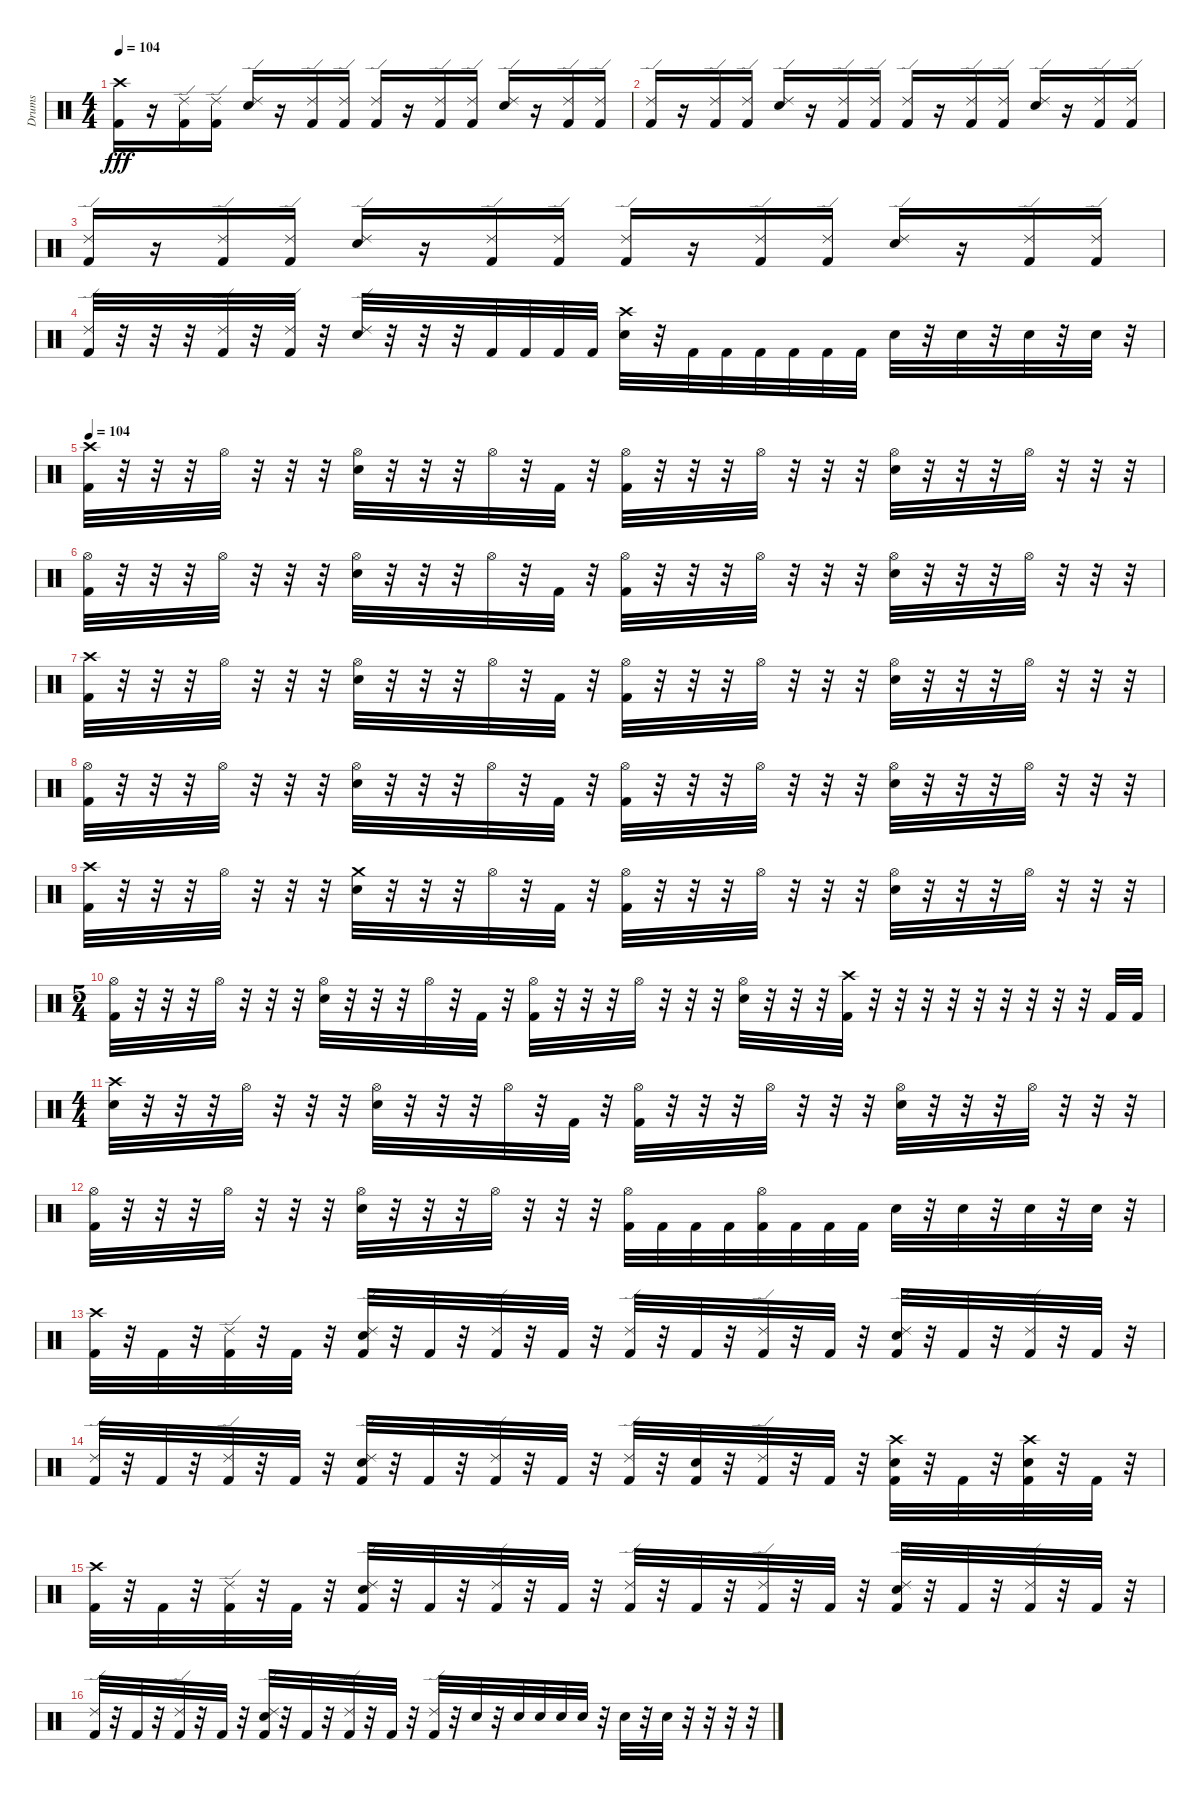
\track ("Drums" "Drums") {instrument percussion}
\staff {score}
\articulation defaults
\ts (4 4)
\tempo 104
\clef neutral
\ks c
("Crash high (hit)" "Kick (hit) 2").16{dy fff} r.16 ("Ride (edge) 2" "Kick (hit) 2").16 ("Ride (edge) 2" "Kick (hit) 2").16 ("Ride (edge) 2" "Snare (hit) 2").16 r.16 ("Ride (edge) 2" "Kick (hit) 2").16 ("Ride (edge) 2" "Kick (hit) 2").16 ("Ride (edge) 2" "Kick (hit) 2").16 r.16 ("Ride (edge) 2" "Kick (hit) 2").16 ("Ride (edge) 2" "Kick (hit) 2").16 ("Ride (edge) 2" "Snare (hit) 2").16 r.16 ("Ride (edge) 2" "Kick (hit) 2").16 ("Ride (edge) 2" "Kick (hit) 2").16 |
("Ride (edge) 2" "Kick (hit) 2").16 r.16 ("Ride (edge) 2" "Kick (hit) 2").16 ("Ride (edge) 2" "Kick (hit) 2").16 ("Ride (edge) 2" "Snare (hit) 2").16 r.16 ("Ride (edge) 2" "Kick (hit) 2").16 ("Ride (edge) 2" "Kick (hit) 2").16 ("Ride (edge) 2" "Kick (hit) 2").16 r.16 ("Ride (edge) 2" "Kick (hit) 2").16 ("Ride (edge) 2" "Kick (hit) 2").16 ("Ride (edge) 2" "Snare (hit) 2").16 r.16 ("Ride (edge) 2" "Kick (hit) 2").16 ("Ride (edge) 2" "Kick (hit) 2").16 |
("Ride (edge) 2" "Kick (hit) 2").16 r.16 ("Ride (edge) 2" "Kick (hit) 2").16 ("Ride (edge) 2" "Kick (hit) 2").16 ("Ride (edge) 2" "Snare (hit) 2").16 r.16 ("Ride (edge) 2" "Kick (hit) 2").16 ("Ride (edge) 2" "Kick (hit) 2").16 ("Ride (edge) 2" "Kick (hit) 2").16 r.16 ("Ride (edge) 2" "Kick (hit) 2").16 ("Ride (edge) 2" "Kick (hit) 2").16 ("Ride (edge) 2" "Snare (hit) 2").16 r.16 ("Ride (edge) 2" "Kick (hit) 2").16 ("Ride (edge) 2" "Kick (hit) 2").16 |
("Ride (edge) 2" "Kick (hit) 2").32 r.32 r.32 r.32 ("Ride (edge) 2" "Kick (hit) 2").32 r.32 ("Ride (edge) 2" "Kick (hit) 2").32 r.32 ("Ride (edge) 2" "Snare (hit) 2").32 r.32 r.32 r.32 "Kick (hit) 2".32 "Kick (hit) 2".32 "Kick (hit) 2".32 "Kick (hit) 2".32 ("Crash high (hit)" "Snare (hit) 2").32 r.32 "Kick (hit) 2".32 "Kick (hit) 2".32 "Kick (hit) 2".32 "Kick (hit) 2".32 "Kick (hit) 2".32 "Kick (hit) 2".32 "Snare (hit) 2".32 r.32 "Snare (hit) 2".32 r.32 "Snare (hit) 2".32 r.32 "Snare (hit) 2".32 r.32 |
\tempo 104
("Crash high (hit)" "Kick (hit) 2").32 r.32 r.32 r.32 "Hi-Hat (open)".32 r.32 r.32 r.32 ("Hi-Hat (open)" "Snare (hit) 2").32 r.32 r.32 r.32 "Hi-Hat (open)".32 r.32 "Kick (hit) 2".32 r.32 ("Hi-Hat (open)" "Kick (hit) 2").32 r.32 r.32 r.32 "Hi-Hat (open)".32 r.32 r.32 r.32 ("Hi-Hat (open)" "Snare (hit) 2").32 r.32 r.32 r.32 "Hi-Hat (open)".32 r.32 r.32 r.32 |
("Hi-Hat (open)" "Kick (hit) 2").32 r.32 r.32 r.32 "Hi-Hat (open)".32 r.32 r.32 r.32 ("Hi-Hat (open)" "Snare (hit) 2").32 r.32 r.32 r.32 "Hi-Hat (open)".32 r.32 "Kick (hit) 2".32 r.32 ("Hi-Hat (open)" "Kick (hit) 2").32 r.32 r.32 r.32 "Hi-Hat (open)".32 r.32 r.32 r.32 ("Hi-Hat (open)" "Snare (hit) 2").32 r.32 r.32 r.32 "Hi-Hat (open)".32 r.32 r.32 r.32 |
("Crash high (hit)" "Kick (hit) 2").32 r.32 r.32 r.32 "Hi-Hat (open)".32 r.32 r.32 r.32 ("Hi-Hat (open)" "Snare (hit) 2").32 r.32 r.32 r.32 "Hi-Hat (open)".32 r.32 "Kick (hit) 2".32 r.32 ("Hi-Hat (open)" "Kick (hit) 2").32 r.32 r.32 r.32 "Hi-Hat (open)".32 r.32 r.32 r.32 ("Hi-Hat (open)" "Snare (hit) 2").32 r.32 r.32 r.32 "Hi-Hat (open)".32 r.32 r.32 r.32 |
("Hi-Hat (open)" "Kick (hit) 2").32 r.32 r.32 r.32 "Hi-Hat (open)".32 r.32 r.32 r.32 ("Hi-Hat (open)" "Snare (hit) 2").32 r.32 r.32 r.32 "Hi-Hat (open)".32 r.32 "Kick (hit) 2".32 r.32 ("Hi-Hat (open)" "Kick (hit) 2").32 r.32 r.32 r.32 "Hi-Hat (open)".32 r.32 r.32 r.32 ("Hi-Hat (open)" "Snare (hit) 2").32 r.32 r.32 r.32 "Hi-Hat (open)".32 r.32 r.32 r.32 |
("Crash high (hit)" "Kick (hit) 2").32 r.32 r.32 r.32 "Hi-Hat (open)".32 r.32 r.32 r.32 ("Crash medium (hit)" "Snare (hit) 2").32 r.32 r.32 r.32 "Hi-Hat (open)".32 r.32 "Kick (hit) 2".32 r.32 ("Hi-Hat (open)" "Kick (hit) 2").32 r.32 r.32 r.32 "Hi-Hat (open)".32 r.32 r.32 r.32 ("Hi-Hat (open)" "Snare (hit) 2").32 r.32 r.32 r.32 "Hi-Hat (open)".32 r.32 r.32 r.32 |
\ts (5 4)
("Hi-Hat (open)" "Kick (hit) 2").32 r.32 r.32 r.32 "Hi-Hat (open)".32 r.32 r.32 r.32 ("Hi-Hat (open)" "Snare (hit) 2").32 r.32 r.32 r.32 "Hi-Hat (open)".32 r.32 "Kick (hit) 2".32 r.32 ("Hi-Hat (open)" "Kick (hit) 2").32 r.32 r.32 r.32 "Hi-Hat (open)".32 r.32 r.32 r.32 ("Hi-Hat (open)" "Snare (hit) 2").32 r.32 r.32 r.32 ("Crash high (hit)" "Kick (hit) 2").32 r.32 r.32 r.32 r.32 r.32 r.32 r.32 r.32 r.32 "Kick (hit) 2".32 "Kick (hit) 2".32 |
\ts (4 4)
("Crash high (hit)" "Snare (hit) 2").32 r.32 r.32 r.32 "Hi-Hat (open)".32 r.32 r.32 r.32 ("Hi-Hat (open)" "Snare (hit) 2").32 r.32 r.32 r.32 "Hi-Hat (open)".32 r.32 "Kick (hit) 2".32 r.32 ("Hi-Hat (open)" "Kick (hit) 2").32 r.32 r.32 r.32 "Hi-Hat (open)".32 r.32 r.32 r.32 ("Hi-Hat (open)" "Snare (hit) 2").32 r.32 r.32 r.32 "Hi-Hat (open)".32 r.32 r.32 r.32 |
("Hi-Hat (open)" "Kick (hit) 2").32 r.32 r.32 r.32 "Hi-Hat (open)".32 r.32 r.32 r.32 ("Hi-Hat (open)" "Snare (hit) 2").32 r.32 r.32 r.32 "Hi-Hat (open)".32 r.32 r.32 r.32 ("Hi-Hat (open)" "Kick (hit) 2").32 "Kick (hit) 2".32 "Kick (hit) 2".32 "Kick (hit) 2".32 ("Hi-Hat (open)" "Kick (hit) 2").32 "Kick (hit) 2".32 "Kick (hit) 2".32 "Kick (hit) 2".32 "Snare (hit) 2".32 r.32 "Snare (hit) 2".32 r.32 "Snare (hit) 2".32 r.32 "Snare (hit) 2".32 r.32 |
("Crash high (hit)" "Kick (hit) 2").32 r.32 "Kick (hit) 2".32 r.32 ("Ride (edge) 2" "Kick (hit) 2").32 r.32 "Kick (hit) 2".32 r.32 ("Ride (edge) 2" "Snare (hit) 2" "Kick (hit) 2").32 r.32 "Kick (hit) 2".32 r.32 ("Ride (edge) 2" "Kick (hit) 2").32 r.32 "Kick (hit) 2".32 r.32 ("Ride (edge) 2" "Kick (hit) 2").32 r.32 "Kick (hit) 2".32 r.32 ("Ride (edge) 2" "Kick (hit) 2").32 r.32 "Kick (hit) 2".32 r.32 ("Ride (edge) 2" "Snare (hit) 2" "Kick (hit) 2").32 r.32 "Kick (hit) 2".32 r.32 ("Ride (edge) 2" "Kick (hit) 2").32 r.32 "Kick (hit) 2".32 r.32 |
("Ride (edge) 2" "Kick (hit) 2").32 r.32 "Kick (hit) 2".32 r.32 ("Ride (edge) 2" "Kick (hit) 2").32 r.32 "Kick (hit) 2".32 r.32 ("Ride (edge) 2" "Snare (hit) 2" "Kick (hit) 2").32 r.32 "Kick (hit) 2".32 r.32 ("Ride (edge) 2" "Kick (hit) 2").32 r.32 "Kick (hit) 2".32 r.32 ("Ride (edge) 2" "Kick (hit) 2").32 r.32 ("Snare (hit) 2" "Kick (hit) 2").32 r.32 ("Ride (edge) 2" "Kick (hit) 2").32 r.32 "Kick (hit) 2".32 r.32 ("Crash high (hit)" "Snare (hit) 2" "Kick (hit) 2").32 r.32 "Kick (hit) 2".32 r.32 ("Crash high (hit)" "Snare (hit) 2" "Kick (hit) 2").32 r.32 "Kick (hit) 2".32 r.32 |
("Crash high (hit)" "Kick (hit) 2").32 r.32 "Kick (hit) 2".32 r.32 ("Ride (edge) 2" "Kick (hit) 2").32 r.32 "Kick (hit) 2".32 r.32 ("Ride (edge) 2" "Snare (hit) 2" "Kick (hit) 2").32 r.32 "Kick (hit) 2".32 r.32 ("Ride (edge) 2" "Kick (hit) 2").32 r.32 "Kick (hit) 2".32 r.32 ("Ride (edge) 2" "Kick (hit) 2").32 r.32 "Kick (hit) 2".32 r.32 ("Ride (edge) 2" "Kick (hit) 2").32 r.32 "Kick (hit) 2".32 r.32 ("Ride (edge) 2" "Snare (hit) 2" "Kick (hit) 2").32 r.32 "Kick (hit) 2".32 r.32 ("Ride (edge) 2" "Kick (hit) 2").32 r.32 "Kick (hit) 2".32 r.32 |
("Ride (edge) 2" "Kick (hit) 2").32 r.32 "Kick (hit) 2".32 r.32 ("Ride (edge) 2" "Kick (hit) 2").32 r.32 "Kick (hit) 2".32 r.32 ("Ride (edge) 2" "Snare (hit) 2" "Kick (hit) 2").32 r.32 "Kick (hit) 2".32 r.32 ("Ride (edge) 2" "Kick (hit) 2").32 r.32 "Kick (hit) 2".32 r.32 ("Ride (edge) 2" "Kick (hit) 2").32 r.32 "Snare (hit) 2".32 r.32 "Snare (hit) 2".32 "Snare (hit) 2".32 "Snare (hit) 2".32 "Snare (hit) 2".32 r.32 "Snare (hit) 2".32 r.32 "Snare (hit) 2".32 r.32 r.32 r.32 r.32
